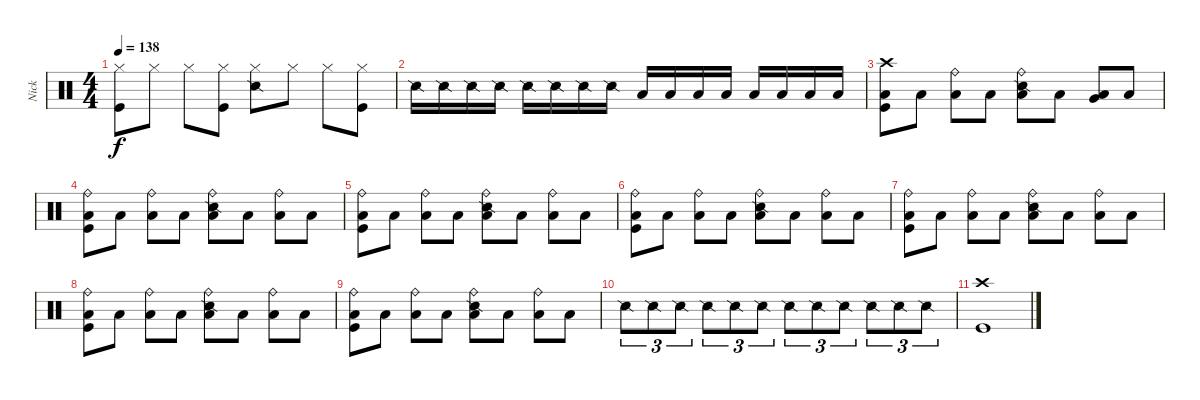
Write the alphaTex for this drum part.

\track ("Nick" "Nick") {instrument percussion}
\staff {score}
\articulation defaults
\ts (4 4)
\tempo 138
\clef neutral
\ks c
("Hi-Hat (closed)" "Kick (hit)").8{dy f} "Hi-Hat (closed)".8 "Hi-Hat (closed)".8 ("Hi-Hat (closed)" "Kick (hit)").8 ("Hi-Hat (closed)" "Snare (side stick) 2").8 "Hi-Hat (closed)".8 "Hi-Hat (closed)".8 ("Hi-Hat (closed)" "Kick (hit)").8 |
"Snare (side stick) 2".16 "Snare (side stick) 2".16 "Snare (side stick) 2".16 "Snare (side stick) 2".16 "Snare (side stick) 2".16 "Snare (side stick) 2".16 "Snare (side stick) 2".16 "Snare (side stick) 2".16 "Low Tom (hit)".16 "Low Tom (hit)".16 "Low Tom (hit)".16 "Low Tom (hit)".16 "Low Floor Tom (hit)".16 "Low Floor Tom (hit)".16 "Low Floor Tom (hit)".16 "Low Floor Tom (hit)".16 |
("Crash high (hit)" "Low Tom (hit)" "Kick (hit)").8 "Low Tom (hit)".8 ("Ride (bell)" "Low Tom (hit)").8 "Low Tom (hit)".8 ("Ride (bell)" "Low Tom (hit)" "Snare (side stick) 2").8 "Low Tom (hit)".8 ("Very Low Tom (hit)" "Low Tom (hit)").8 "Low Tom (hit)".8 |
("Ride (bell)" "Low Tom (hit)" "Kick (hit)").8 "Low Tom (hit)".8 ("Ride (bell)" "Low Tom (hit)").8 "Low Tom (hit)".8 ("Ride (bell)" "Low Tom (hit)" "Snare (side stick) 2").8 "Low Tom (hit)".8 ("Ride (bell)" "Low Tom (hit)").8 "Low Tom (hit)".8 |
("Ride (bell)" "Low Tom (hit)" "Kick (hit)").8 "Low Tom (hit)".8 ("Ride (bell)" "Low Tom (hit)").8 "Low Tom (hit)".8 ("Ride (bell)" "Low Tom (hit)" "Snare (side stick) 2").8 "Low Tom (hit)".8 ("Ride (bell)" "Low Tom (hit)").8 "Low Tom (hit)".8 |
("Ride (bell)" "Low Tom (hit)" "Kick (hit)").8 "Low Tom (hit)".8 ("Ride (bell)" "Low Tom (hit)").8 "Low Tom (hit)".8 ("Ride (bell)" "Low Tom (hit)" "Snare (side stick) 2").8 "Low Tom (hit)".8 ("Ride (bell)" "Low Tom (hit)").8 "Low Tom (hit)".8 |
("Ride (bell)" "Low Tom (hit)" "Kick (hit)").8 "Low Tom (hit)".8 ("Ride (bell)" "Low Tom (hit)").8 "Low Tom (hit)".8 ("Ride (bell)" "Low Tom (hit)" "Snare (side stick) 2").8 "Low Tom (hit)".8 ("Ride (bell)" "Low Tom (hit)").8 "Low Tom (hit)".8 |
("Ride (bell)" "Low Tom (hit)" "Kick (hit)").8 "Low Tom (hit)".8 ("Ride (bell)" "Low Tom (hit)").8 "Low Tom (hit)".8 ("Ride (bell)" "Low Tom (hit)" "Snare (side stick) 2").8 "Low Tom (hit)".8 ("Ride (bell)" "Low Tom (hit)").8 "Low Tom (hit)".8 |
("Ride (bell)" "Low Tom (hit)" "Kick (hit)").8 "Low Tom (hit)".8 ("Ride (bell)" "Low Tom (hit)").8 "Low Tom (hit)".8 ("Ride (bell)" "Low Tom (hit)" "Snare (side stick) 2").8 "Low Tom (hit)".8 ("Ride (bell)" "Low Tom (hit)").8 "Low Tom (hit)".8 |
"Snare (side stick) 2".8{tu (3 2)} "Snare (side stick) 2".8{tu (3 2)} "Snare (side stick) 2".8{tu (3 2)} "Snare (side stick) 2".8{tu (3 2)} "Snare (side stick) 2".8{tu (3 2)} "Snare (side stick) 2".8{tu (3 2)} "Snare (side stick) 2".8{tu (3 2)} "Snare (side stick) 2".8{tu (3 2)} "Snare (side stick) 2".8{tu (3 2)} "Snare (side stick) 2".8{tu (3 2)} "Snare (side stick) 2".8{tu (3 2)} "Snare (side stick) 2".8{tu (3 2)} |
("Crash high (hit)" "Kick (hit)").1
